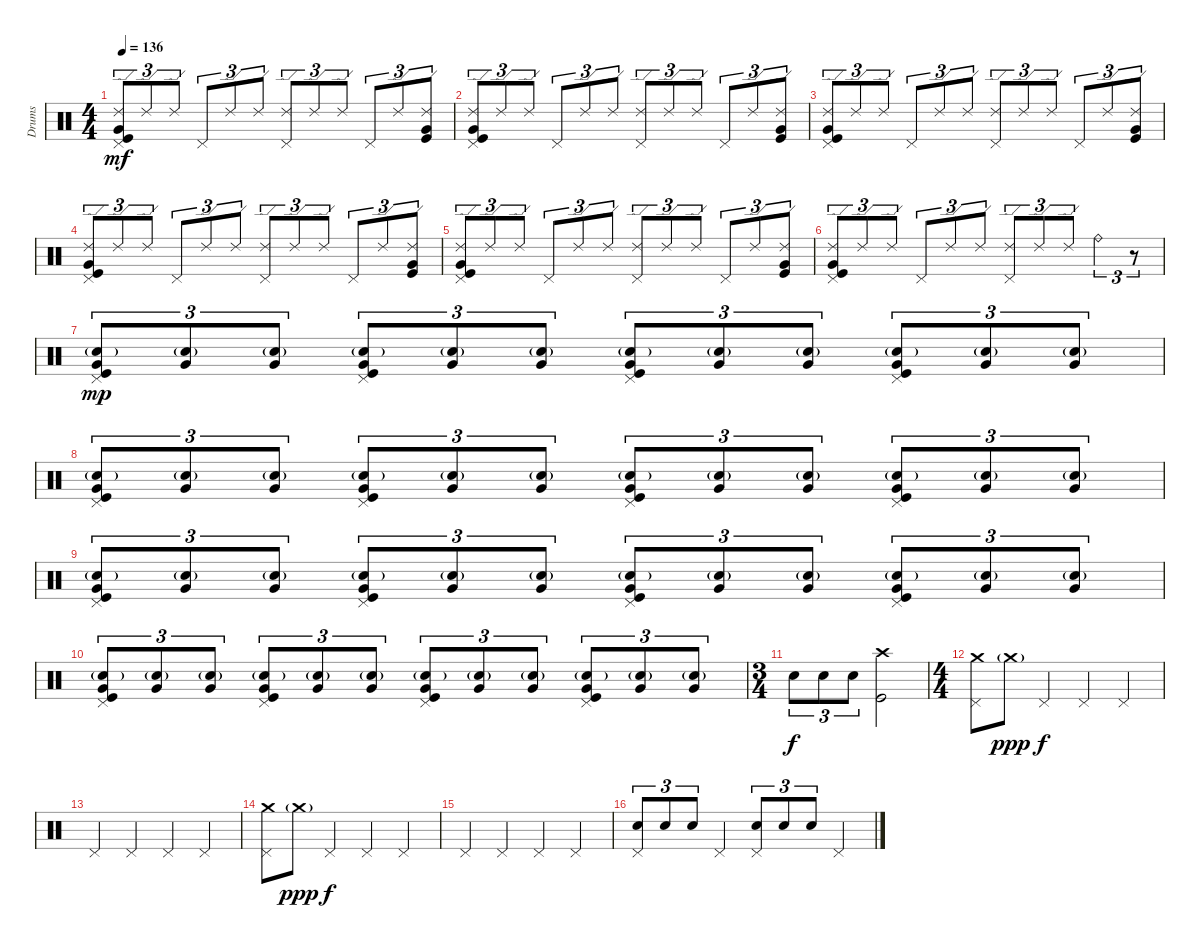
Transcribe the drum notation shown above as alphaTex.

\track ("Drums" "Drums") {instrument percussion}
\staff {score}
\articulation defaults
\ts (4 4)
\tempo 136
\clef neutral
\ks c
("Pedal Hi-Hat (hit)" "Ride (edge) 2" "Kick (hit)" "Very Low Tom (hit)").8{tu (3 2) dy mf} "Ride (edge) 2".8{tu (3 2)} "Ride (edge) 2".8{tu (3 2)} "Pedal Hi-Hat (hit)".8{tu (3 2)} "Ride (edge) 2".8{tu (3 2)} "Ride (edge) 2".8{tu (3 2)} ("Pedal Hi-Hat (hit)" "Ride (edge) 2").8{tu (3 2)} "Ride (edge) 2".8{tu (3 2)} "Ride (edge) 2".8{tu (3 2)} "Pedal Hi-Hat (hit)".8{tu (3 2)} "Ride (edge) 2".8{tu (3 2)} ("Ride (edge) 2" "Kick (hit)" "Very Low Tom (hit)").8{tu (3 2)} |
("Pedal Hi-Hat (hit)" "Ride (edge) 2" "Kick (hit)" "Very Low Tom (hit)").8{tu (3 2)} "Ride (edge) 2".8{tu (3 2)} "Ride (edge) 2".8{tu (3 2)} "Pedal Hi-Hat (hit)".8{tu (3 2)} "Ride (edge) 2".8{tu (3 2)} "Ride (edge) 2".8{tu (3 2)} ("Pedal Hi-Hat (hit)" "Ride (edge) 2").8{tu (3 2)} "Ride (edge) 2".8{tu (3 2)} "Ride (edge) 2".8{tu (3 2)} "Pedal Hi-Hat (hit)".8{tu (3 2)} "Ride (edge) 2".8{tu (3 2)} ("Ride (edge) 2" "Kick (hit)" "Very Low Tom (hit)").8{tu (3 2)} |
("Pedal Hi-Hat (hit)" "Ride (edge) 2" "Kick (hit)" "Very Low Tom (hit)").8{tu (3 2)} "Ride (edge) 2".8{tu (3 2)} "Ride (edge) 2".8{tu (3 2)} "Pedal Hi-Hat (hit)".8{tu (3 2)} "Ride (edge) 2".8{tu (3 2)} "Ride (edge) 2".8{tu (3 2)} ("Pedal Hi-Hat (hit)" "Ride (edge) 2").8{tu (3 2)} "Ride (edge) 2".8{tu (3 2)} "Ride (edge) 2".8{tu (3 2)} "Pedal Hi-Hat (hit)".8{tu (3 2)} "Ride (edge) 2".8{tu (3 2)} ("Ride (edge) 2" "Kick (hit)" "Very Low Tom (hit)").8{tu (3 2)} |
("Pedal Hi-Hat (hit)" "Ride (edge) 2" "Kick (hit)" "Very Low Tom (hit)").8{tu (3 2)} "Ride (edge) 2".8{tu (3 2)} "Ride (edge) 2".8{tu (3 2)} "Pedal Hi-Hat (hit)".8{tu (3 2)} "Ride (edge) 2".8{tu (3 2)} "Ride (edge) 2".8{tu (3 2)} ("Pedal Hi-Hat (hit)" "Ride (edge) 2").8{tu (3 2)} "Ride (edge) 2".8{tu (3 2)} "Ride (edge) 2".8{tu (3 2)} "Pedal Hi-Hat (hit)".8{tu (3 2)} "Ride (edge) 2".8{tu (3 2)} ("Ride (edge) 2" "Kick (hit)" "Very Low Tom (hit)").8{tu (3 2)} |
("Pedal Hi-Hat (hit)" "Ride (edge) 2" "Kick (hit)" "Very Low Tom (hit)").8{tu (3 2)} "Ride (edge) 2".8{tu (3 2)} "Ride (edge) 2".8{tu (3 2)} "Pedal Hi-Hat (hit)".8{tu (3 2)} "Ride (edge) 2".8{tu (3 2)} "Ride (edge) 2".8{tu (3 2)} ("Pedal Hi-Hat (hit)" "Ride (edge) 2").8{tu (3 2)} "Ride (edge) 2".8{tu (3 2)} "Ride (edge) 2".8{tu (3 2)} "Pedal Hi-Hat (hit)".8{tu (3 2)} "Ride (edge) 2".8{tu (3 2)} ("Ride (edge) 2" "Kick (hit)" "Very Low Tom (hit)").8{tu (3 2)} |
("Pedal Hi-Hat (hit)" "Ride (edge) 2" "Kick (hit)" "Very Low Tom (hit)").8{tu (3 2)} "Ride (edge) 2".8{tu (3 2)} "Ride (edge) 2".8{tu (3 2)} "Pedal Hi-Hat (hit)".8{tu (3 2)} "Ride (edge) 2".8{tu (3 2)} "Ride (edge) 2".8{tu (3 2)} ("Pedal Hi-Hat (hit)" "Ride (edge) 2").8{tu (3 2)} "Ride (edge) 2".8{tu (3 2)} "Ride (edge) 2".8{tu (3 2)} "Ride (bell)".4{tu (3 2)} r.8{tu (3 2) volume 8} |
("Pedal Hi-Hat (hit)" "Very Low Tom (hit)" "Snare (hit) 2"{g} "Kick (hit)").8{tu (3 2) dy mp volume 13} ("Very Low Tom (hit)" "Snare (hit) 2"{g}).8{tu (3 2)} ("Very Low Tom (hit)" "Snare (hit) 2"{g}).8{tu (3 2)} ("Pedal Hi-Hat (hit)" "Very Low Tom (hit)" "Snare (hit) 2"{g} "Kick (hit)").8{tu (3 2)} ("Very Low Tom (hit)" "Snare (hit) 2"{g}).8{tu (3 2)} ("Very Low Tom (hit)" "Snare (hit) 2"{g}).8{tu (3 2)} ("Pedal Hi-Hat (hit)" "Very Low Tom (hit)" "Snare (hit) 2"{g} "Kick (hit)").8{tu (3 2)} ("Very Low Tom (hit)" "Snare (hit) 2"{g}).8{tu (3 2)} ("Very Low Tom (hit)" "Snare (hit) 2"{g}).8{tu (3 2)} ("Pedal Hi-Hat (hit)" "Very Low Tom (hit)" "Snare (hit) 2"{g} "Kick (hit)").8{tu (3 2)} ("Very Low Tom (hit)" "Snare (hit) 2"{g}).8{tu (3 2)} ("Very Low Tom (hit)" "Snare (hit) 2"{g}).8{tu (3 2)} |
("Pedal Hi-Hat (hit)" "Very Low Tom (hit)" "Snare (hit) 2"{g} "Kick (hit)").8{tu (3 2)} ("Very Low Tom (hit)" "Snare (hit) 2"{g}).8{tu (3 2)} ("Very Low Tom (hit)" "Snare (hit) 2"{g}).8{tu (3 2)} ("Pedal Hi-Hat (hit)" "Very Low Tom (hit)" "Snare (hit) 2"{g} "Kick (hit)").8{tu (3 2)} ("Very Low Tom (hit)" "Snare (hit) 2"{g}).8{tu (3 2)} ("Very Low Tom (hit)" "Snare (hit) 2"{g}).8{tu (3 2)} ("Pedal Hi-Hat (hit)" "Very Low Tom (hit)" "Snare (hit) 2"{g} "Kick (hit)").8{tu (3 2)} ("Very Low Tom (hit)" "Snare (hit) 2"{g}).8{tu (3 2)} ("Very Low Tom (hit)" "Snare (hit) 2"{g}).8{tu (3 2)} ("Pedal Hi-Hat (hit)" "Very Low Tom (hit)" "Snare (hit) 2"{g} "Kick (hit)").8{tu (3 2)} ("Very Low Tom (hit)" "Snare (hit) 2"{g}).8{tu (3 2)} ("Very Low Tom (hit)" "Snare (hit) 2"{g}).8{tu (3 2)} |
("Pedal Hi-Hat (hit)" "Very Low Tom (hit)" "Snare (hit) 2"{g} "Kick (hit)").8{tu (3 2)} ("Very Low Tom (hit)" "Snare (hit) 2"{g}).8{tu (3 2)} ("Very Low Tom (hit)" "Snare (hit) 2"{g}).8{tu (3 2)} ("Pedal Hi-Hat (hit)" "Very Low Tom (hit)" "Snare (hit) 2"{g} "Kick (hit)").8{tu (3 2)} ("Very Low Tom (hit)" "Snare (hit) 2"{g}).8{tu (3 2)} ("Very Low Tom (hit)" "Snare (hit) 2"{g}).8{tu (3 2)} ("Pedal Hi-Hat (hit)" "Very Low Tom (hit)" "Snare (hit) 2"{g} "Kick (hit)").8{tu (3 2)} ("Very Low Tom (hit)" "Snare (hit) 2"{g}).8{tu (3 2)} ("Very Low Tom (hit)" "Snare (hit) 2"{g}).8{tu (3 2)} ("Pedal Hi-Hat (hit)" "Very Low Tom (hit)" "Snare (hit) 2"{g} "Kick (hit)").8{tu (3 2)} ("Very Low Tom (hit)" "Snare (hit) 2"{g}).8{tu (3 2)} ("Very Low Tom (hit)" "Snare (hit) 2"{g}).8{tu (3 2)} |
("Pedal Hi-Hat (hit)" "Very Low Tom (hit)" "Snare (hit) 2"{g} "Kick (hit)").8{tu (3 2)} ("Very Low Tom (hit)" "Snare (hit) 2"{g}).8{tu (3 2)} ("Very Low Tom (hit)" "Snare (hit) 2"{g}).8{tu (3 2)} ("Pedal Hi-Hat (hit)" "Very Low Tom (hit)" "Snare (hit) 2"{g} "Kick (hit)").8{tu (3 2)} ("Very Low Tom (hit)" "Snare (hit) 2"{g}).8{tu (3 2)} ("Very Low Tom (hit)" "Snare (hit) 2"{g}).8{tu (3 2)} ("Pedal Hi-Hat (hit)" "Very Low Tom (hit)" "Snare (hit) 2"{g} "Kick (hit)").8{tu (3 2)} ("Very Low Tom (hit)" "Snare (hit) 2"{g}).8{tu (3 2)} ("Very Low Tom (hit)" "Snare (hit) 2"{g}).8{tu (3 2)} ("Pedal Hi-Hat (hit)" "Very Low Tom (hit)" "Snare (hit) 2"{g} "Kick (hit)").8{tu (3 2)} ("Very Low Tom (hit)" "Snare (hit) 2"{g}).8{tu (3 2)} ("Very Low Tom (hit)" "Snare (hit) 2"{g}).8{tu (3 2)} |
\ts (3 4)
"Snare (hit) 2".8{tu (3 2) dy f} "Snare (hit) 2".8{tu (3 2)} "Snare (hit) 2".8{tu (3 2)} ("Crash high (hit)" "Kick (hit)").2 |
\ts (4 4)
("Crash medium (hit)" "Pedal Hi-Hat (hit)").8 "Crash medium (hit)"{g}.8{dy ppp} "Pedal Hi-Hat (hit)".4{dy f} "Pedal Hi-Hat (hit)".4 "Pedal Hi-Hat (hit)".4 |
"Pedal Hi-Hat (hit)".4 "Pedal Hi-Hat (hit)".4 "Pedal Hi-Hat (hit)".4 "Pedal Hi-Hat (hit)".4 |
("Crash medium (hit)" "Pedal Hi-Hat (hit)").8 "Crash medium (hit)"{g}.8{dy ppp} "Pedal Hi-Hat (hit)".4{dy f} "Pedal Hi-Hat (hit)".4 "Pedal Hi-Hat (hit)".4 |
"Pedal Hi-Hat (hit)".4 "Pedal Hi-Hat (hit)".4 "Pedal Hi-Hat (hit)".4 "Pedal Hi-Hat (hit)".4 |
("Snare (hit) 2" "Pedal Hi-Hat (hit)").8{tu (3 2)} "Snare (hit) 2".8{tu (3 2)} "Snare (hit) 2".8{tu (3 2)} "Pedal Hi-Hat (hit)".4 ("Snare (hit) 2" "Pedal Hi-Hat (hit)").8{tu (3 2)} "Snare (hit) 2".8{tu (3 2)} "Snare (hit) 2".8{tu (3 2)} "Pedal Hi-Hat (hit)".4
